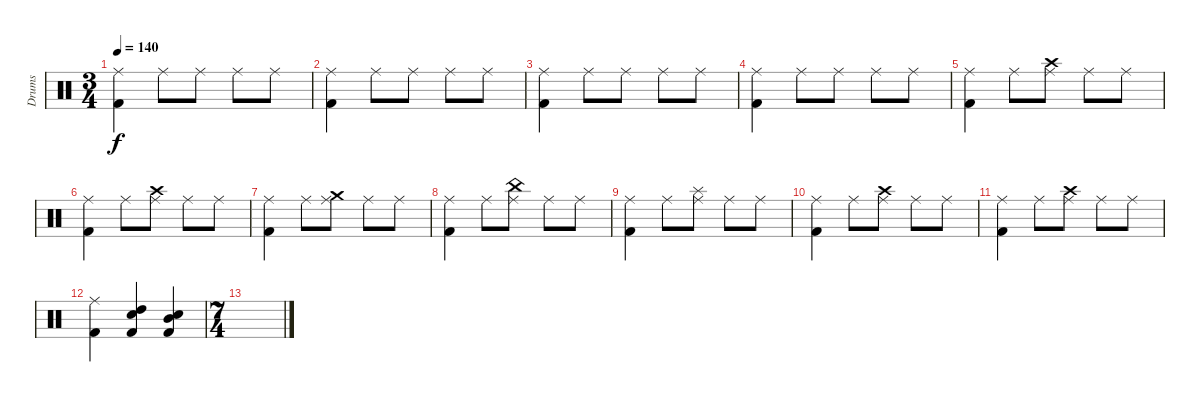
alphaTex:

\track ("Drums" "Drums") {instrument percussion}
\staff {score}
\articulation defaults
\ts (3 4)
\tempo 140
\clef neutral
\ks c
("Ride (middle)" "Kick (hit) 2").4{dy f} "Ride (middle)".8 "Ride (middle)".8 "Ride (middle)".8 "Ride (middle)".8 |
("Ride (middle)" "Kick (hit) 2").4 "Ride (middle)".8 "Ride (middle)".8 "Ride (middle)".8 "Ride (middle)".8 |
("Ride (middle)" "Kick (hit) 2").4 "Ride (middle)".8 "Ride (middle)".8 "Ride (middle)".8 "Ride (middle)".8 |
("Ride (middle)" "Kick (hit) 2").4 "Ride (middle)".8 "Ride (middle)".8 "Ride (middle)".8 "Ride (middle)".8 |
("Ride (middle)" "Kick (hit) 2").4 "Ride (middle)".8 ("Ride (middle)" "Crash high (hit)").8 "Ride (middle)".8 "Ride (middle)".8 |
("Ride (middle)" "Kick (hit) 2").4 "Ride (middle)".8 ("Ride (middle)" "Crash high (hit)").8 "Ride (middle)".8 "Ride (middle)".8 |
("Ride (middle)" "Kick (hit) 2").4 "Ride (middle)".8 ("Ride (middle)" "Crash medium (hit)").8 "Ride (middle)".8 "Ride (middle)".8 |
("Ride (middle)" "Kick (hit) 2").4 "Ride (middle)".8 ("Ride (middle)" "China (hit)").8 "Ride (middle)".8 "Ride (middle)".8 |
("Ride (middle)" "Kick (hit) 2").4 "Ride (middle)".8 ("Ride (middle)" "Splash (hit)").8 "Ride (middle)".8 "Ride (middle)".8 |
("Ride (middle)" "Kick (hit) 2").4 "Ride (middle)".8 ("Ride (middle)" "Crash high (hit)").8 "Ride (middle)".8 "Ride (middle)".8 |
("Ride (middle)" "Kick (hit) 2").4 "Ride (middle)".8 ("Ride (middle)" "Crash high (hit)").8 "Ride (middle)".8 "Ride (middle)".8 |
("Ride (middle)" "Kick (hit) 2").4 ("High Tom (hit)" "Snare (hit) 2" "Kick (hit) 2").4 ("Mid Tom (hit)" "Snare (hit) 2" "Kick (hit) 2").4 |
\ts (7 4)
